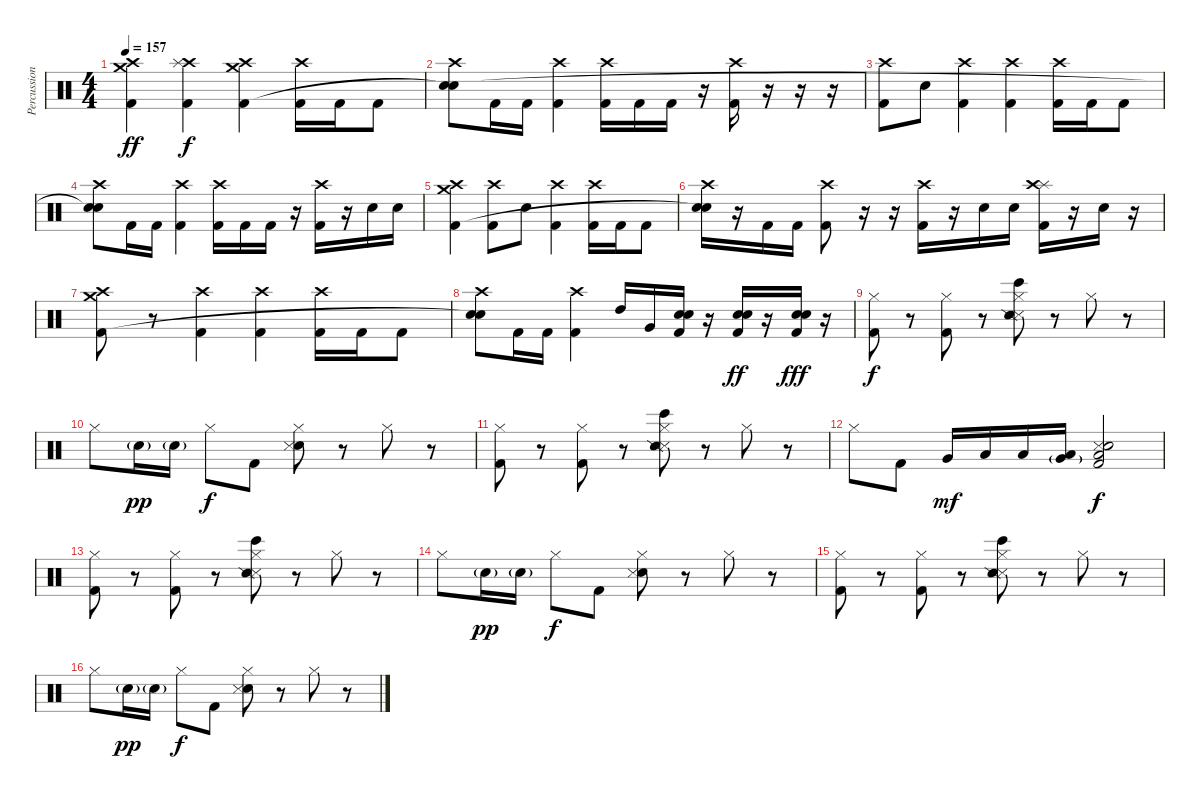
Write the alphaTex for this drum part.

\track ("Percussions" "Percussion") {instrument percussion}
\staff {score}
\articulation defaults
\ts (4 4)
\tempo 157
\clef neutral
\ks c
("Crash high (hit)" "Crash medium (hit)" "Kick (hit) 2").4{dy ff} ("Crash high (hit)" "Splash (hit)" "Kick (hit) 2").4{dy f} ("Crash high (hit)" "Crash medium (hit)" "Kick (hit) 2").4 ("Crash high (hit)" "Kick (hit) 2").16 "Kick (hit) 2".16 "Kick (hit) 2".8 |
("Crash high (hit)" "Electric Snare (hit)" "Snare (hit)"{t}).8 "Kick (hit) 2".16 "Kick (hit) 2".16 ("Crash high (hit)" "Kick (hit) 2").4 ("Crash high (hit)" "Kick (hit) 2").16 "Kick (hit) 2".16 "Kick (hit) 2".16 r.16 ("Crash high (hit)" "Kick (hit) 2").16 r.16 r.16 r.16 |
("Crash high (hit)" "Kick (hit) 2").8 "Electric Snare (hit)".8 ("Crash high (hit)" "Kick (hit) 2").4 ("Crash high (hit)" "Kick (hit) 2").4 ("Crash high (hit)" "Kick (hit) 2").16 "Kick (hit) 2".16 "Kick (hit) 2".8 |
("Crash high (hit)" "Electric Snare (hit)" "Snare (hit)"{t}).8 "Kick (hit) 2".16 "Kick (hit) 2".16 ("Crash high (hit)" "Kick (hit) 2").4 ("Crash high (hit)" "Kick (hit) 2").16 "Kick (hit) 2".16 "Kick (hit) 2".16 r.16 ("Crash high (hit)" "Kick (hit) 2").16 r.16 "Electric Snare (hit)".16 "Electric Snare (hit)".16 |
("Crash medium (hit)" "Crash high (hit)" "Kick (hit) 2").4 ("Crash high (hit)" "Kick (hit) 2").8 "Electric Snare (hit)".8 ("Crash high (hit)" "Kick (hit) 2").4 ("Crash high (hit)" "Kick (hit) 2").16 "Kick (hit) 2".16 "Kick (hit) 2".8 |
("Crash high (hit)" "Electric Snare (hit)" "Snare (hit)"{t}).16 r.16 "Kick (hit) 2".16 "Kick (hit) 2".16 ("Crash high (hit)" "Kick (hit) 2").8 r.16 r.16 ("Crash high (hit)" "Kick (hit) 2").16 r.16 "Electric Snare (hit)".16 "Electric Snare (hit)".16 ("Splash (hit)" "Crash high (hit)" "Kick (hit) 2").16 r.16 "Electric Snare (hit)".16 r.16 |
("Crash medium (hit)" "Crash high (hit)" "Kick (hit) 2").8 r.8 ("Crash high (hit)" "Kick (hit) 2").4 ("Crash high (hit)" "Kick (hit) 2").4 ("Crash high (hit)" "Kick (hit) 2").16 "Kick (hit) 2".16 "Kick (hit) 2".8 |
("Crash high (hit)" "Electric Snare (hit)" "Snare (hit)"{t}).8 "Kick (hit) 2".16 "Kick (hit) 2".16 ("Crash high (hit)" "Kick (hit) 2").4 "High Tom (hit)".16 "Very Low Tom (hit)".16 ("Snare (hit) 2" "Electric Snare (hit)" "Kick (hit) 2").16 r.16 ("Snare (hit) 2" "Electric Snare (hit)" "Kick (hit) 2").16{dy ff} r.16 ("Snare (hit) 2" "Electric Snare (hit)" "Kick (hit) 2").16{dy fff} r.16 |
("Hi-Hat (closed)" "Kick (hit) 2").8{dy f} r.8 ("Hi-Hat (closed)" "Kick (hit) 2").8 r.8 ("Hi-Hat (closed)" "Bongo High (hit)" "Metronome (hit)" "Snare (side stick) 2").8 r.8 "Hi-Hat (closed)".8 r.8 |
"Hi-Hat (closed)".8 "Electric Snare (hit)"{g}.16{dy pp} "Electric Snare (hit)"{g}.16 "Hi-Hat (closed)".8{dy f} "Kick (hit) 2".8 ("Hi-Hat (closed)" "Snare (hit) 2" "Snare (side stick) 3").8 r.8 "Hi-Hat (closed)".8 r.8 |
("Hi-Hat (closed)" "Kick (hit) 2").8 r.8 ("Hi-Hat (closed)" "Kick (hit) 2").8 r.8 ("Hi-Hat (closed)" "Bongo High (hit)" "Metronome (hit)" "Snare (side stick) 2").8 r.8 "Hi-Hat (closed)".8 r.8 |
"Hi-Hat (closed)".8 "Kick (hit) 2".8 "Very Low Tom (hit)".16{dy mf} "Low Floor Tom (hit)".16 "Low Floor Tom (hit)".16 ("Very Low Tom (hit)"{g} "Low Floor Tom (hit)").16 ("Snare (side stick) 3" "Snare (hit) 2" "Low Floor Tom (hit)" "Kick (hit) 2").2{dy f} |
("Hi-Hat (closed)" "Kick (hit) 2").8 r.8 ("Hi-Hat (closed)" "Kick (hit) 2").8 r.8 ("Hi-Hat (closed)" "Bongo High (hit)" "Metronome (hit)" "Snare (side stick) 2").8 r.8 "Hi-Hat (closed)".8 r.8 |
"Hi-Hat (closed)".8 "Electric Snare (hit)"{g}.16{dy pp} "Electric Snare (hit)"{g}.16 "Hi-Hat (closed)".8{dy f} "Kick (hit) 2".8 ("Hi-Hat (closed)" "Snare (hit) 2" "Snare (side stick) 3").8 r.8 "Hi-Hat (closed)".8 r.8 |
("Hi-Hat (closed)" "Kick (hit) 2").8 r.8 ("Hi-Hat (closed)" "Kick (hit) 2").8 r.8 ("Hi-Hat (closed)" "Bongo High (hit)" "Metronome (hit)" "Snare (side stick) 2").8 r.8 "Hi-Hat (closed)".8 r.8 |
"Hi-Hat (closed)".8 "Electric Snare (hit)"{g}.16{dy pp} "Electric Snare (hit)"{g}.16 "Hi-Hat (closed)".8{dy f} "Kick (hit) 2".8 ("Hi-Hat (closed)" "Snare (hit) 2" "Snare (side stick) 3").8 r.8 "Hi-Hat (closed)".8 r.8
